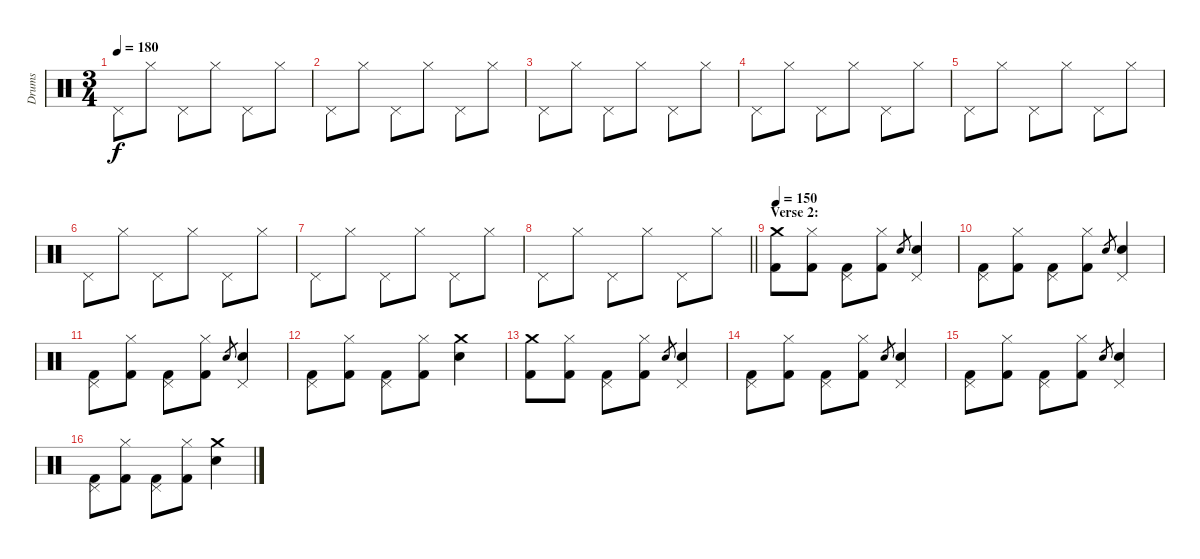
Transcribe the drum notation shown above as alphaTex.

\track ("Drums" "Drums") {instrument percussion}
\staff {score}
\articulation defaults
\ts (3 4)
\tempo 180
\clef neutral
\ks c "Pedal Hi-Hat (hit)".8{dy f} "Hi-Hat (closed)".8 "Pedal Hi-Hat (hit)".8 "Hi-Hat (closed)".8 "Pedal Hi-Hat (hit)".8 "Hi-Hat (closed)".8
|
"Pedal Hi-Hat (hit)".8 "Hi-Hat (closed)".8 "Pedal Hi-Hat (hit)".8 "Hi-Hat (closed)".8 "Pedal Hi-Hat (hit)".8 "Hi-Hat (closed)".8 |
"Pedal Hi-Hat (hit)".8 "Hi-Hat (closed)".8 "Pedal Hi-Hat (hit)".8 "Hi-Hat (closed)".8 "Pedal Hi-Hat (hit)".8 "Hi-Hat (closed)".8 |
"Pedal Hi-Hat (hit)".8 "Hi-Hat (closed)".8 "Pedal Hi-Hat (hit)".8 "Hi-Hat (closed)".8 "Pedal Hi-Hat (hit)".8 "Hi-Hat (closed)".8 |
"Pedal Hi-Hat (hit)".8 "Hi-Hat (closed)".8 "Pedal Hi-Hat (hit)".8 "Hi-Hat (closed)".8 "Pedal Hi-Hat (hit)".8 "Hi-Hat (closed)".8 |
"Pedal Hi-Hat (hit)".8 "Hi-Hat (closed)".8 "Pedal Hi-Hat (hit)".8 "Hi-Hat (closed)".8 "Pedal Hi-Hat (hit)".8 "Hi-Hat (closed)".8 |
"Pedal Hi-Hat (hit)".8 "Hi-Hat (closed)".8 "Pedal Hi-Hat (hit)".8 "Hi-Hat (closed)".8 "Pedal Hi-Hat (hit)".8 "Hi-Hat (closed)".8 |
\barLineRight lightlight "Pedal Hi-Hat (hit)".8 "Hi-Hat (closed)".8 "Pedal Hi-Hat (hit)".8 "Hi-Hat (closed)".8 "Pedal Hi-Hat (hit)".8 "Hi-Hat (closed)".8
|
\section ("" "Verse 2:")
\tempo 150
("Crash medium (hit)" "Kick (hit) 2").8 ("Hi-Hat (closed)" "Kick (hit) 2").8 ("Pedal Hi-Hat (hit)" "Kick (hit) 2").8 ("Hi-Hat (closed)" "Kick (hit) 2").8 "Electric Snare (hit)".8{gr} ("Pedal Hi-Hat (hit)" "Electric Snare (hit)").4 |
("Pedal Hi-Hat (hit)" "Kick (hit) 2").8 ("Hi-Hat (closed)" "Kick (hit) 2").8 ("Pedal Hi-Hat (hit)" "Kick (hit) 2").8 ("Hi-Hat (closed)" "Kick (hit) 2").8 "Electric Snare (hit)".8{gr} ("Pedal Hi-Hat (hit)" "Electric Snare (hit)").4 |
("Pedal Hi-Hat (hit)" "Kick (hit) 2").8 ("Hi-Hat (closed)" "Kick (hit) 2").8 ("Pedal Hi-Hat (hit)" "Kick (hit) 2").8 ("Hi-Hat (closed)" "Kick (hit) 2").8 "Electric Snare (hit)".8{gr} ("Pedal Hi-Hat (hit)" "Electric Snare (hit)").4 |
("Pedal Hi-Hat (hit)" "Kick (hit) 2").8 ("Hi-Hat (closed)" "Kick (hit) 2").8 ("Pedal Hi-Hat (hit)" "Kick (hit) 2").8 ("Hi-Hat (closed)" "Kick (hit) 2").8 ("Crash medium (hit)" "Electric Snare (hit)").4 |
("Crash medium (hit)" "Kick (hit) 2").8 ("Hi-Hat (closed)" "Kick (hit) 2").8 ("Pedal Hi-Hat (hit)" "Kick (hit) 2").8 ("Hi-Hat (closed)" "Kick (hit) 2").8 "Electric Snare (hit)".8{gr} ("Pedal Hi-Hat (hit)" "Electric Snare (hit)").4 |
("Pedal Hi-Hat (hit)" "Kick (hit) 2").8 ("Hi-Hat (closed)" "Kick (hit) 2").8 ("Pedal Hi-Hat (hit)" "Kick (hit) 2").8 ("Hi-Hat (closed)" "Kick (hit) 2").8 "Electric Snare (hit)".8{gr} ("Pedal Hi-Hat (hit)" "Electric Snare (hit)").4 |
("Pedal Hi-Hat (hit)" "Kick (hit) 2").8 ("Hi-Hat (closed)" "Kick (hit) 2").8 ("Pedal Hi-Hat (hit)" "Kick (hit) 2").8 ("Hi-Hat (closed)" "Kick (hit) 2").8 "Electric Snare (hit)".8{gr} ("Pedal Hi-Hat (hit)" "Electric Snare (hit)").4 |
("Pedal Hi-Hat (hit)" "Kick (hit) 2").8 ("Hi-Hat (closed)" "Kick (hit) 2").8 ("Pedal Hi-Hat (hit)" "Kick (hit) 2").8 ("Hi-Hat (closed)" "Kick (hit) 2").8 ("Crash medium (hit)" "Electric Snare (hit)").4
